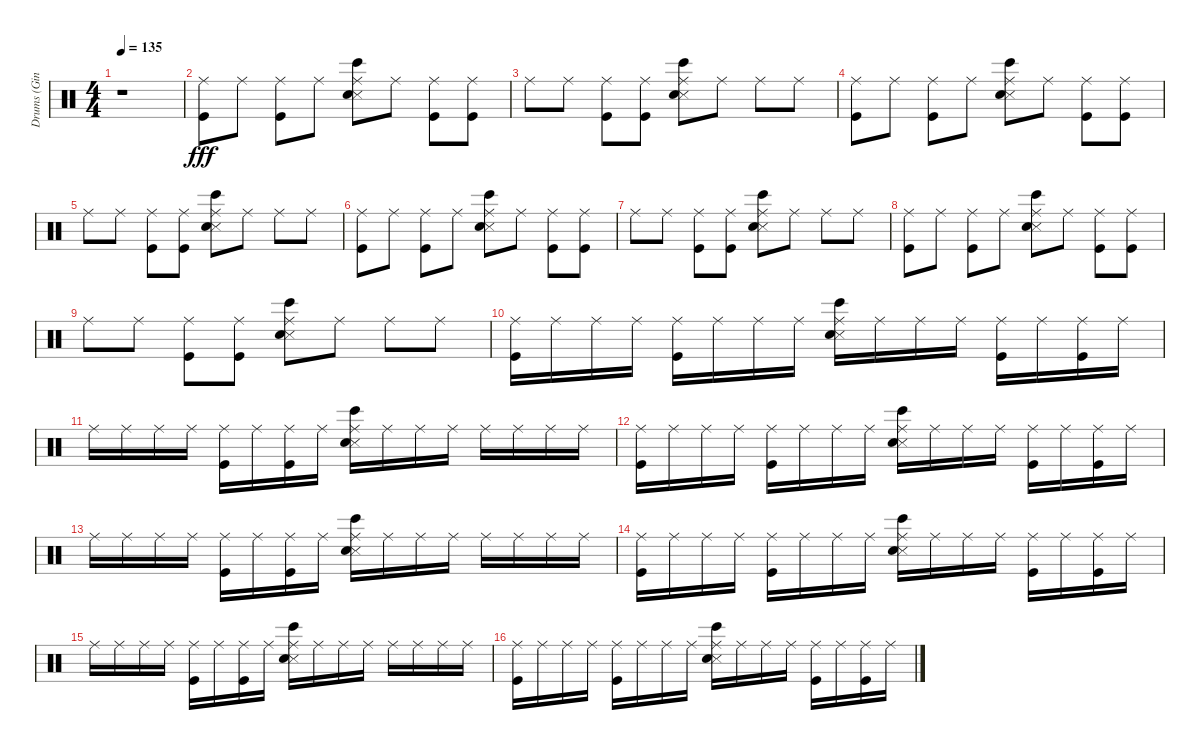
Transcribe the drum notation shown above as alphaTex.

\track ("Drums (Ginger Fish)" "Drums (Gin") {instrument percussion}
\staff {score}
\articulation defaults
\ts (4 4)
\tempo 135
\clef neutral
\ks c
r.1{dy fff} |
("Ride (middle)" "Kick (hit)").8 "Ride (middle)".8 ("Ride (middle)" "Kick (hit)").8 "Ride (middle)".8 ("Ride (middle)" "Snare (side stick) 3" "Snare (hit) 2" "Bongo High (hit)").8 "Ride (middle)".8 ("Ride (middle)" "Kick (hit)").8 ("Ride (middle)" "Kick (hit)").8 |
"Ride (middle)".8 "Ride (middle)".8 ("Ride (middle)" "Kick (hit)").8 ("Ride (middle)" "Kick (hit)").8 ("Ride (middle)" "Snare (side stick) 3" "Snare (hit) 2" "Bongo High (hit)").8 "Ride (middle)".8 "Ride (middle)".8 "Ride (middle)".8 |
("Ride (middle)" "Kick (hit)").8 "Ride (middle)".8 ("Ride (middle)" "Kick (hit)").8 "Ride (middle)".8 ("Ride (middle)" "Snare (side stick) 3" "Snare (hit) 2" "Bongo High (hit)").8 "Ride (middle)".8 ("Ride (middle)" "Kick (hit)").8 ("Ride (middle)" "Kick (hit)").8 |
"Ride (middle)".8 "Ride (middle)".8 ("Ride (middle)" "Kick (hit)").8 ("Ride (middle)" "Kick (hit)").8 ("Ride (middle)" "Snare (side stick) 3" "Snare (hit) 2" "Bongo High (hit)").8 "Ride (middle)".8 "Ride (middle)".8 "Ride (middle)".8 |
("Ride (middle)" "Kick (hit)").8 "Ride (middle)".8 ("Ride (middle)" "Kick (hit)").8 "Ride (middle)".8 ("Ride (middle)" "Snare (side stick) 3" "Snare (hit) 2" "Bongo High (hit)").8 "Ride (middle)".8 ("Ride (middle)" "Kick (hit)").8 ("Ride (middle)" "Kick (hit)").8 |
"Ride (middle)".8 "Ride (middle)".8 ("Ride (middle)" "Kick (hit)").8 ("Ride (middle)" "Kick (hit)").8 ("Ride (middle)" "Snare (side stick) 3" "Snare (hit) 2" "Bongo High (hit)").8 "Ride (middle)".8 "Ride (middle)".8 "Ride (middle)".8 |
("Ride (middle)" "Kick (hit)").8 "Ride (middle)".8 ("Ride (middle)" "Kick (hit)").8 "Ride (middle)".8 ("Ride (middle)" "Snare (side stick) 3" "Snare (hit) 2" "Bongo High (hit)").8 "Ride (middle)".8 ("Ride (middle)" "Kick (hit)").8 ("Ride (middle)" "Kick (hit)").8 |
"Ride (middle)".8 "Ride (middle)".8 ("Ride (middle)" "Kick (hit)").8 ("Ride (middle)" "Kick (hit)").8 ("Ride (middle)" "Snare (side stick) 3" "Snare (hit) 2" "Bongo High (hit)").8 "Ride (middle)".8 "Ride (middle)".8 "Ride (middle)".8 |
("Ride (middle)" "Kick (hit)").16 "Ride (middle)".16 "Ride (middle)".16 "Ride (middle)".16 ("Ride (middle)" "Kick (hit)").16 "Ride (middle)".16 "Ride (middle)".16 "Ride (middle)".16 ("Ride (middle)" "Snare (side stick) 3" "Snare (hit) 2" "Bongo High (hit)").16 "Ride (middle)".16 "Ride (middle)".16 "Ride (middle)".16 ("Ride (middle)" "Kick (hit)").16 "Ride (middle)".16 ("Ride (middle)" "Kick (hit)").16 "Ride (middle)".16 |
"Ride (middle)".16 "Ride (middle)".16 "Ride (middle)".16 "Ride (middle)".16 ("Ride (middle)" "Kick (hit)").16 "Ride (middle)".16 ("Ride (middle)" "Kick (hit)").16 "Ride (middle)".16 ("Ride (middle)" "Snare (side stick) 3" "Snare (hit) 2" "Bongo High (hit)").16 "Ride (middle)".16 "Ride (middle)".16 "Ride (middle)".16 "Ride (middle)".16 "Ride (middle)".16 "Ride (middle)".16 "Ride (middle)".16 |
("Ride (middle)" "Kick (hit)").16 "Ride (middle)".16 "Ride (middle)".16 "Ride (middle)".16 ("Ride (middle)" "Kick (hit)").16 "Ride (middle)".16 "Ride (middle)".16 "Ride (middle)".16 ("Ride (middle)" "Snare (side stick) 3" "Snare (hit) 2" "Bongo High (hit)").16 "Ride (middle)".16 "Ride (middle)".16 "Ride (middle)".16 ("Ride (middle)" "Kick (hit)").16 "Ride (middle)".16 ("Ride (middle)" "Kick (hit)").16 "Ride (middle)".16 |
"Ride (middle)".16 "Ride (middle)".16 "Ride (middle)".16 "Ride (middle)".16 ("Ride (middle)" "Kick (hit)").16 "Ride (middle)".16 ("Ride (middle)" "Kick (hit)").16 "Ride (middle)".16 ("Ride (middle)" "Snare (side stick) 3" "Snare (hit) 2" "Bongo High (hit)").16 "Ride (middle)".16 "Ride (middle)".16 "Ride (middle)".16 "Ride (middle)".16 "Ride (middle)".16 "Ride (middle)".16 "Ride (middle)".16 |
("Ride (middle)" "Kick (hit)").16 "Ride (middle)".16 "Ride (middle)".16 "Ride (middle)".16 ("Ride (middle)" "Kick (hit)").16 "Ride (middle)".16 "Ride (middle)".16 "Ride (middle)".16 ("Ride (middle)" "Snare (side stick) 3" "Snare (hit) 2" "Bongo High (hit)").16 "Ride (middle)".16 "Ride (middle)".16 "Ride (middle)".16 ("Ride (middle)" "Kick (hit)").16 "Ride (middle)".16 ("Ride (middle)" "Kick (hit)").16 "Ride (middle)".16 |
"Ride (middle)".16 "Ride (middle)".16 "Ride (middle)".16 "Ride (middle)".16 ("Ride (middle)" "Kick (hit)").16 "Ride (middle)".16 ("Ride (middle)" "Kick (hit)").16 "Ride (middle)".16 ("Ride (middle)" "Snare (side stick) 3" "Snare (hit) 2" "Bongo High (hit)").16 "Ride (middle)".16 "Ride (middle)".16 "Ride (middle)".16 "Ride (middle)".16 "Ride (middle)".16 "Ride (middle)".16 "Ride (middle)".16 |
("Ride (middle)" "Kick (hit)").16 "Ride (middle)".16 "Ride (middle)".16 "Ride (middle)".16 ("Ride (middle)" "Kick (hit)").16 "Ride (middle)".16 "Ride (middle)".16 "Ride (middle)".16 ("Ride (middle)" "Snare (side stick) 3" "Snare (hit) 2" "Bongo High (hit)").16 "Ride (middle)".16 "Ride (middle)".16 "Ride (middle)".16 ("Ride (middle)" "Kick (hit)").16 "Ride (middle)".16 ("Ride (middle)" "Kick (hit)").16 "Ride (middle)".16
